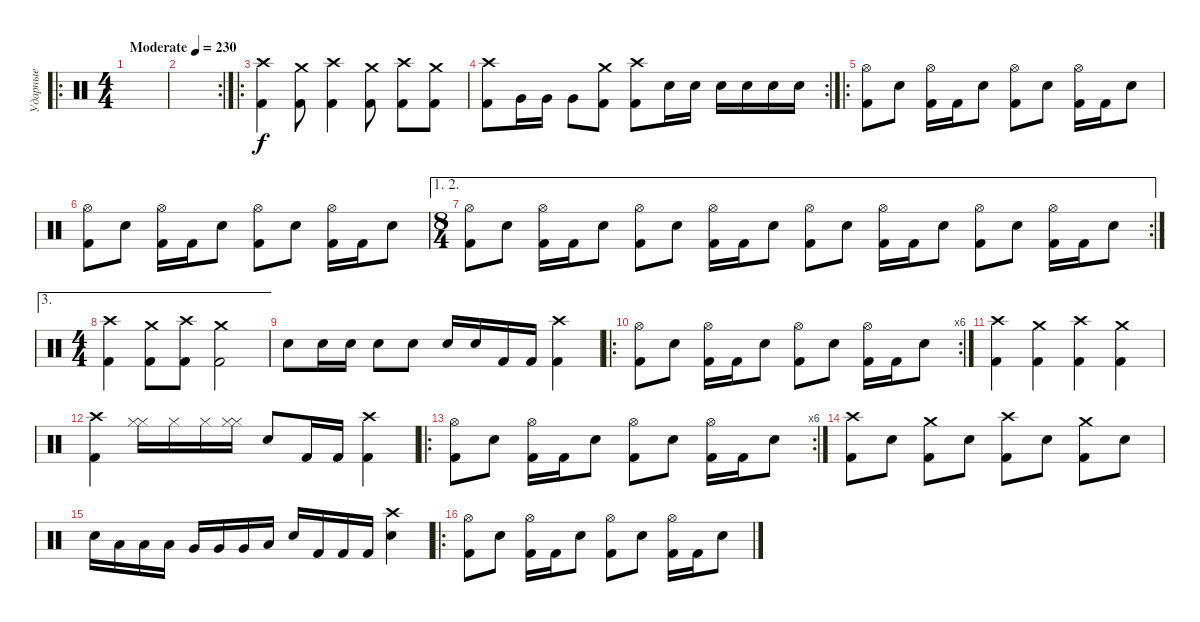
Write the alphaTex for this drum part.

\track ("Ударные" "Ударные") {instrument percussion}
\staff {score}
\articulation defaults
\ro
\ts (4 4)
\tempo (230 "Moderate")
\clef neutral
\ks c
|
\rc 2
|
\ro
("Crash high (hit)" "Kick (hit) 2").4 ("Crash medium (hit)" "Kick (hit) 2").8 ("Crash high (hit)" "Kick (hit) 2").4 ("Crash medium (hit)" "Kick (hit) 2").8 ("Crash high (hit)" "Kick (hit) 2").8 ("Crash medium (hit)" "Kick (hit) 2").8 |
\rc 2
("Crash high (hit)" "Kick (hit) 2").8 "Very Low Tom (hit)".16 "Very Low Tom (hit)".16 "Very Low Tom (hit)".8 ("Crash medium (hit)" "Kick (hit) 2").8 ("Crash high (hit)" "Kick (hit) 2").8 "Snare (hit) 2".16 "Snare (hit) 2".16 "Snare (hit) 2".16 "Snare (hit) 2".16 "Snare (hit) 2".16 "Snare (hit) 2".16 |
\ro
("Hi-Hat (open)" "Kick (hit) 2").8 "Snare (hit) 2".8 ("Hi-Hat (open)" "Kick (hit) 2").16 "Kick (hit) 2".16 "Snare (hit) 2".8 ("Hi-Hat (open)" "Kick (hit) 2").8 "Snare (hit) 2".8 ("Hi-Hat (open)" "Kick (hit) 2").16 "Kick (hit) 2".16 "Snare (hit) 2".8 |
("Hi-Hat (open)" "Kick (hit) 2").8 "Snare (hit) 2".8 ("Hi-Hat (open)" "Kick (hit) 2").16 "Kick (hit) 2".16 "Snare (hit) 2".8 ("Hi-Hat (open)" "Kick (hit) 2").8 "Snare (hit) 2".8 ("Hi-Hat (open)" "Kick (hit) 2").16 "Kick (hit) 2".16 "Snare (hit) 2".8 |
\ae (1 2)
\rc 2
\ts (8 4)
("Hi-Hat (open)" "Kick (hit) 2").8 "Snare (hit) 2".8 ("Hi-Hat (open)" "Kick (hit) 2").16 "Kick (hit) 2".16 "Snare (hit) 2".8 ("Hi-Hat (open)" "Kick (hit) 2").8 "Snare (hit) 2".8 ("Hi-Hat (open)" "Kick (hit) 2").16 "Kick (hit) 2".16 "Snare (hit) 2".8 ("Hi-Hat (open)" "Kick (hit) 2").8 "Snare (hit) 2".8 ("Hi-Hat (open)" "Kick (hit) 2").16 "Kick (hit) 2".16 "Snare (hit) 2".8 ("Hi-Hat (open)" "Kick (hit) 2").8 "Snare (hit) 2".8 ("Hi-Hat (open)" "Kick (hit) 2").16 "Kick (hit) 2".16 "Snare (hit) 2".8 |
\ae 3
\ts (4 4)
("Crash high (hit)" "Kick (hit) 2").4 ("Crash medium (hit)" "Kick (hit) 2").8 ("Crash high (hit)" "Kick (hit) 2").8 ("Crash medium (hit)" "Kick (hit) 2").2 |
"Snare (hit) 2".8 "Snare (hit) 2".16 "Snare (hit) 2".16 "Snare (hit) 2".8 "Snare (hit) 2".8 "Snare (hit) 2".16 "Snare (hit) 2".16 "Kick (hit) 2".16 "Kick (hit) 2".16 ("Crash high (hit)" "Kick (hit) 2").4 |
\ro
\rc 6
("Hi-Hat (open)" "Kick (hit) 2").8 "Snare (hit) 2".8 ("Hi-Hat (open)" "Kick (hit) 2").16 "Kick (hit) 2".16 "Snare (hit) 2".8 ("Hi-Hat (open)" "Kick (hit) 2").8 "Snare (hit) 2".8 ("Hi-Hat (open)" "Kick (hit) 2").16 "Kick (hit) 2".16 "Snare (hit) 2".8 |
("Crash high (hit)" "Kick (hit) 2").4 ("Crash medium (hit)" "Kick (hit) 2").4 ("Crash high (hit)" "Kick (hit) 2").4 ("Crash medium (hit)" "Kick (hit) 2").4 |
("Crash high (hit)" "Kick (hit) 2").4 ("Hi-Hat (closed)" "Hi-Hat (closed)").16 "Hi-Hat (closed)".16 "Hi-Hat (closed)".16 ("Hi-Hat (closed)" "Hi-Hat (closed)").16 "Snare (hit) 2".8 "Kick (hit) 2".16 "Kick (hit) 2".16 ("Crash high (hit)" "Kick (hit) 2").4 |
\ro
\rc 6
("Hi-Hat (open)" "Kick (hit) 2").8 "Snare (hit) 2".8 ("Hi-Hat (open)" "Kick (hit) 2").16 "Kick (hit) 2".16 "Snare (hit) 2".8 ("Hi-Hat (open)" "Kick (hit) 2").8 "Snare (hit) 2".8 ("Hi-Hat (open)" "Kick (hit) 2").16 "Kick (hit) 2".16 "Snare (hit) 2".8 |
("Crash high (hit)" "Kick (hit) 2").8 "Snare (hit) 2".8 ("Crash medium (hit)" "Kick (hit) 2").8 "Snare (hit) 2".8 ("Crash high (hit)" "Kick (hit) 2").8 "Snare (hit) 2".8 ("Crash medium (hit)" "Kick (hit) 2").8 "Snare (hit) 2".8 |
"Snare (hit) 2".16 "Low Tom (hit)".16 "Low Tom (hit)".16 "Low Tom (hit)".16 "Very Low Tom (hit)".16 "Very Low Tom (hit)".16 "Very Low Tom (hit)".16 "Low Floor Tom (hit)".16 "Snare (hit) 2".16 "Kick (hit) 2".16 "Kick (hit) 2".16 "Kick (hit) 2".16 ("Crash high (hit)" "Snare (hit) 2").4 |
\ro
("Hi-Hat (open)" "Kick (hit) 2").8 "Snare (hit) 2".8 ("Hi-Hat (open)" "Kick (hit) 2").16 "Kick (hit) 2".16 "Snare (hit) 2".8 ("Hi-Hat (open)" "Kick (hit) 2").8 "Snare (hit) 2".8 ("Hi-Hat (open)" "Kick (hit) 2").16 "Kick (hit) 2".16 "Snare (hit) 2".8
